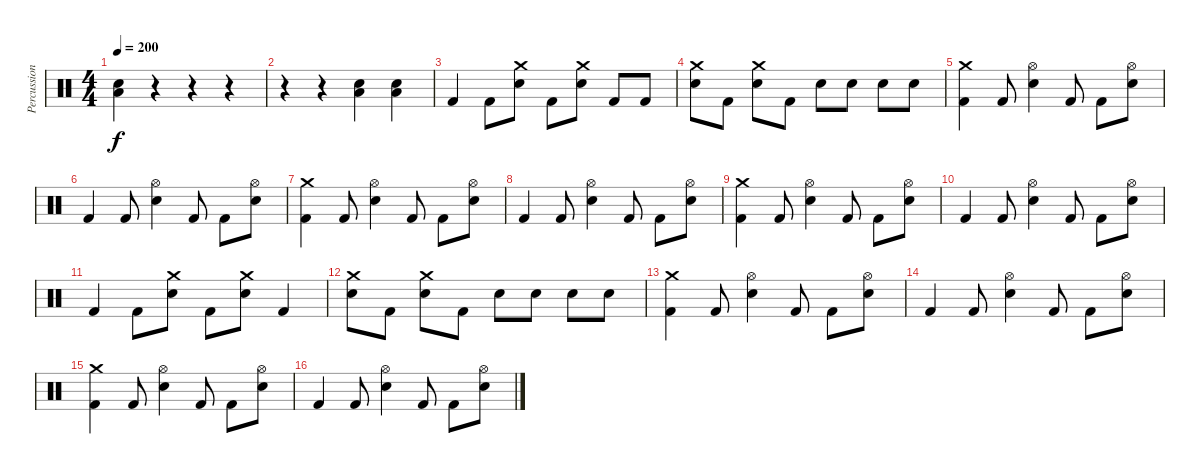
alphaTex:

\track ("Percussion" "Percussion") {instrument percussion}
\staff {score}
\articulation defaults
\ts (4 4)
\tempo 200
\clef neutral
\ks c
("Snare (hit) 2" "Low Floor Tom (hit)").4{dy f} r.4 r.4 r.4 |
r.4 r.4 ("Snare (hit) 2" "Low Floor Tom (hit)").4 ("Snare (hit) 2" "Low Floor Tom (hit)").4 |
"Kick (hit) 2".4 "Kick (hit) 2".8 ("Crash medium (hit)" "Snare (hit) 2").8 "Kick (hit) 2".8 ("Crash medium (hit)" "Snare (hit) 2").8 "Kick (hit) 2".8 "Kick (hit) 2".8 |
("Crash medium (hit)" "Snare (hit) 2").8 "Kick (hit) 2".8 ("Crash medium (hit)" "Snare (hit) 2").8 "Kick (hit) 2".8 "Snare (hit) 2".8 "Snare (hit) 2".8 "Snare (hit) 2".8 "Snare (hit) 2".8 |
("Crash medium (hit)" "Kick (hit) 2").4 "Kick (hit) 2".8 ("Hi-Hat (open)" "Snare (hit) 2").4 "Kick (hit) 2".8 "Kick (hit) 2".8 ("Hi-Hat (open)" "Snare (hit) 2").8 |
"Kick (hit) 2".4 "Kick (hit) 2".8 ("Hi-Hat (open)" "Snare (hit) 2").4 "Kick (hit) 2".8 "Kick (hit) 2".8 ("Hi-Hat (open)" "Snare (hit) 2").8 |
("Crash medium (hit)" "Kick (hit) 2").4 "Kick (hit) 2".8 ("Hi-Hat (open)" "Snare (hit) 2").4 "Kick (hit) 2".8 "Kick (hit) 2".8 ("Hi-Hat (open)" "Snare (hit) 2").8 |
"Kick (hit) 2".4 "Kick (hit) 2".8 ("Hi-Hat (open)" "Snare (hit) 2").4 "Kick (hit) 2".8 "Kick (hit) 2".8 ("Hi-Hat (open)" "Snare (hit) 2").8 |
("Crash medium (hit)" "Kick (hit) 2").4 "Kick (hit) 2".8 ("Hi-Hat (open)" "Snare (hit) 2").4 "Kick (hit) 2".8 "Kick (hit) 2".8 ("Hi-Hat (open)" "Snare (hit) 2").8 |
"Kick (hit) 2".4 "Kick (hit) 2".8 ("Hi-Hat (open)" "Snare (hit) 2").4 "Kick (hit) 2".8 "Kick (hit) 2".8 ("Hi-Hat (open)" "Snare (hit) 2").8 |
"Kick (hit) 2".4 "Kick (hit) 2".8 ("Crash medium (hit)" "Snare (hit) 2").8 "Kick (hit) 2".8 ("Crash medium (hit)" "Snare (hit) 2").8 "Kick (hit) 2".4 |
("Crash medium (hit)" "Snare (hit) 2").8 "Kick (hit) 2".8 ("Crash medium (hit)" "Snare (hit) 2").8 "Kick (hit) 2".8 "Snare (hit) 2".8 "Snare (hit) 2".8 "Snare (hit) 2".8 "Snare (hit) 2".8 |
("Crash medium (hit)" "Kick (hit) 2").4 "Kick (hit) 2".8 ("Hi-Hat (open)" "Snare (hit) 2").4 "Kick (hit) 2".8 "Kick (hit) 2".8 ("Hi-Hat (open)" "Snare (hit) 2").8 |
"Kick (hit) 2".4 "Kick (hit) 2".8 ("Hi-Hat (open)" "Snare (hit) 2").4 "Kick (hit) 2".8 "Kick (hit) 2".8 ("Hi-Hat (open)" "Snare (hit) 2").8 |
("Crash medium (hit)" "Kick (hit) 2").4 "Kick (hit) 2".8 ("Hi-Hat (open)" "Snare (hit) 2").4 "Kick (hit) 2".8 "Kick (hit) 2".8 ("Hi-Hat (open)" "Snare (hit) 2").8 |
"Kick (hit) 2".4 "Kick (hit) 2".8 ("Hi-Hat (open)" "Snare (hit) 2").4 "Kick (hit) 2".8 "Kick (hit) 2".8 ("Hi-Hat (open)" "Snare (hit) 2").8
